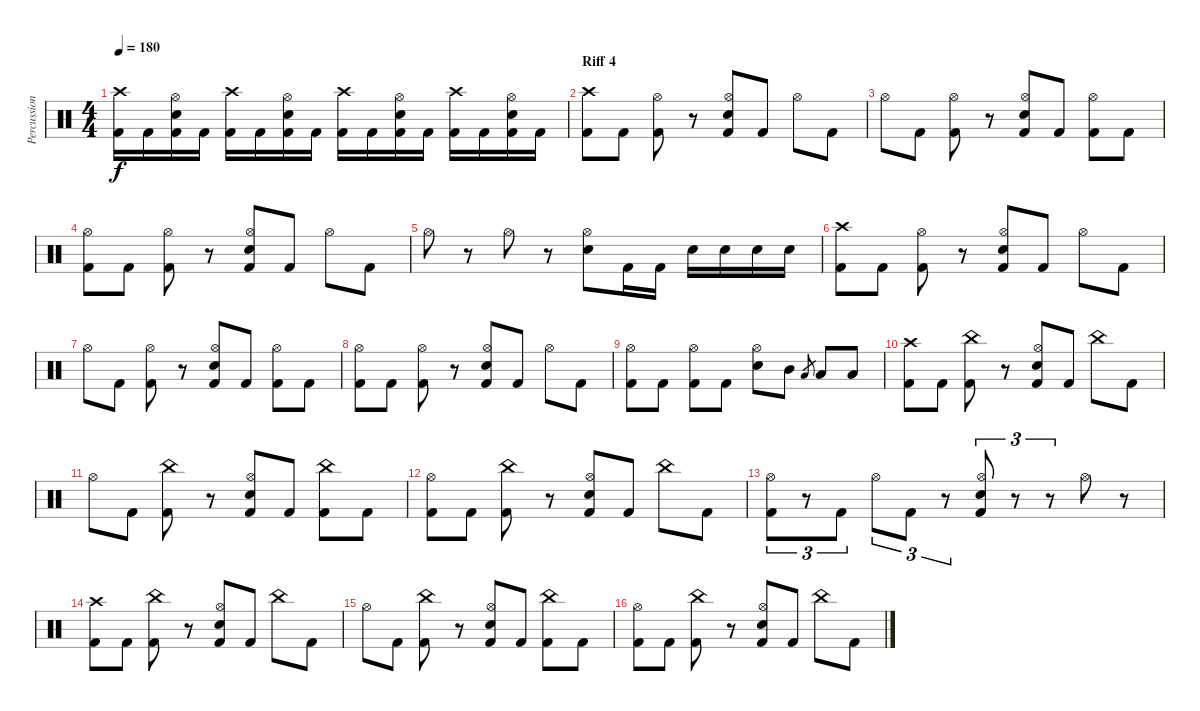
\track ("Percussion" "Percussion") {instrument percussion}
\staff {score}
\articulation defaults
\ts (4 4)
\tempo 180
\clef neutral
\ks c
("Crash high (hit)" "Kick (hit) 2").16{dy f} "Kick (hit) 2".16 ("Hi-Hat (open)" "Electric Snare (hit)" "Kick (hit) 2").16 "Kick (hit) 2".16 ("Crash high (hit)" "Kick (hit) 2").16 "Kick (hit) 2".16 ("Hi-Hat (open)" "Electric Snare (hit)" "Kick (hit) 2").16 "Kick (hit) 2".16 ("Crash high (hit)" "Kick (hit) 2").16 "Kick (hit) 2".16 ("Hi-Hat (open)" "Electric Snare (hit)" "Kick (hit) 2").16 "Kick (hit) 2".16 ("Crash high (hit)" "Kick (hit) 2").16 "Kick (hit) 2".16 ("Hi-Hat (open)" "Electric Snare (hit)" "Kick (hit) 2").16 "Kick (hit) 2".16 |
\section ("" "Riff 4")
("Crash high (hit)" "Kick (hit) 2").8 "Kick (hit) 2".8 ("Hi-Hat (open)" "Kick (hit) 2").8 r.8 ("Hi-Hat (open)" "Electric Snare (hit)" "Kick (hit) 2").8 "Kick (hit) 2".8 "Hi-Hat (open)".8 "Kick (hit) 2".8 |
"Hi-Hat (open)".8 "Kick (hit) 2".8 ("Hi-Hat (open)" "Kick (hit) 2").8 r.8 ("Hi-Hat (open)" "Electric Snare (hit)" "Kick (hit) 2").8 "Kick (hit) 2".8 ("Hi-Hat (open)" "Kick (hit) 2").8 "Kick (hit) 2".8 |
("Hi-Hat (open)" "Kick (hit) 2").8 "Kick (hit) 2".8 ("Hi-Hat (open)" "Kick (hit) 2").8 r.8 ("Hi-Hat (open)" "Electric Snare (hit)" "Kick (hit) 2").8 "Kick (hit) 2".8 "Hi-Hat (open)".8 "Kick (hit) 2".8 |
"Hi-Hat (open)".8 r.8 "Hi-Hat (open)".8 r.8 ("Hi-Hat (open)" "Electric Snare (hit)").8 "Kick (hit) 2".16 "Kick (hit) 2".16 "Electric Snare (hit)".16 "Electric Snare (hit)".16 "Electric Snare (hit)".16 "Electric Snare (hit)".16 |
("Crash high (hit)" "Kick (hit) 2").8 "Kick (hit) 2".8 ("Hi-Hat (open)" "Kick (hit) 2").8 r.8 ("Hi-Hat (open)" "Electric Snare (hit)" "Kick (hit) 2").8 "Kick (hit) 2".8 "Hi-Hat (open)".8 "Kick (hit) 2".8 |
"Hi-Hat (open)".8 "Kick (hit) 2".8 ("Hi-Hat (open)" "Kick (hit) 2").8 r.8 ("Hi-Hat (open)" "Electric Snare (hit)" "Kick (hit) 2").8 "Kick (hit) 2".8 ("Hi-Hat (open)" "Kick (hit) 2").8 "Kick (hit) 2".8 |
("Hi-Hat (open)" "Kick (hit) 2").8 "Kick (hit) 2".8 ("Hi-Hat (open)" "Kick (hit) 2").8 r.8 ("Hi-Hat (open)" "Electric Snare (hit)" "Kick (hit) 2").8 "Kick (hit) 2".8 "Hi-Hat (open)".8 "Kick (hit) 2".8 |
("Hi-Hat (open)" "Kick (hit) 2").8 "Kick (hit) 2".8 ("Hi-Hat (open)" "Kick (hit) 2").8 "Kick (hit) 2".8 ("Hi-Hat (open)" "Electric Snare (hit)").8 "Mid Tom (hit)".8 "Low Tom (hit)".8{gr} "Low Tom (hit)".8 "Low Floor Tom (hit)".8 |
("Crash high (hit)" "Kick (hit) 2").8 "Kick (hit) 2".8 ("China (hit)" "Kick (hit) 2").8 r.8 ("Hi-Hat (open)" "Electric Snare (hit)" "Kick (hit) 2").8 "Kick (hit) 2".8 "China (hit)".8 "Kick (hit) 2".8 |
"Hi-Hat (open)".8 "Kick (hit) 2".8 ("China (hit)" "Kick (hit) 2").8 r.8 ("Hi-Hat (open)" "Electric Snare (hit)" "Kick (hit) 2").8 "Kick (hit) 2".8 ("China (hit)" "Kick (hit) 2").8 "Kick (hit) 2".8 |
("Hi-Hat (open)" "Kick (hit) 2").8 "Kick (hit) 2".8 ("China (hit)" "Kick (hit) 2").8 r.8 ("Hi-Hat (open)" "Electric Snare (hit)" "Kick (hit) 2").8 "Kick (hit) 2".8 "China (hit)".8 "Kick (hit) 2".8 |
("Hi-Hat (open)" "Kick (hit) 2").8{tu (3 2)} r.8{tu (3 2)} "Kick (hit) 2".8{tu (3 2)} "Hi-Hat (open)".8{tu (3 2)} "Kick (hit) 2".8{tu (3 2)} r.8{tu (3 2)} ("Hi-Hat (open)" "Electric Snare (hit)" "Kick (hit) 2").8{tu (3 2)} r.8{tu (3 2)} r.8{tu (3 2)} "Hi-Hat (open)".8 r.8 |
("Crash high (hit)" "Kick (hit) 2").8 "Kick (hit) 2".8 ("China (hit)" "Kick (hit) 2").8 r.8 ("Hi-Hat (open)" "Electric Snare (hit)" "Kick (hit) 2").8 "Kick (hit) 2".8 "China (hit)".8 "Kick (hit) 2".8 |
"Hi-Hat (open)".8 "Kick (hit) 2".8 ("China (hit)" "Kick (hit) 2").8 r.8 ("Hi-Hat (open)" "Electric Snare (hit)" "Kick (hit) 2").8 "Kick (hit) 2".8 ("China (hit)" "Kick (hit) 2").8 "Kick (hit) 2".8 |
("Hi-Hat (open)" "Kick (hit) 2").8 "Kick (hit) 2".8 ("China (hit)" "Kick (hit) 2").8 r.8 ("Hi-Hat (open)" "Electric Snare (hit)" "Kick (hit) 2").8 "Kick (hit) 2".8 "China (hit)".8 "Kick (hit) 2".8
